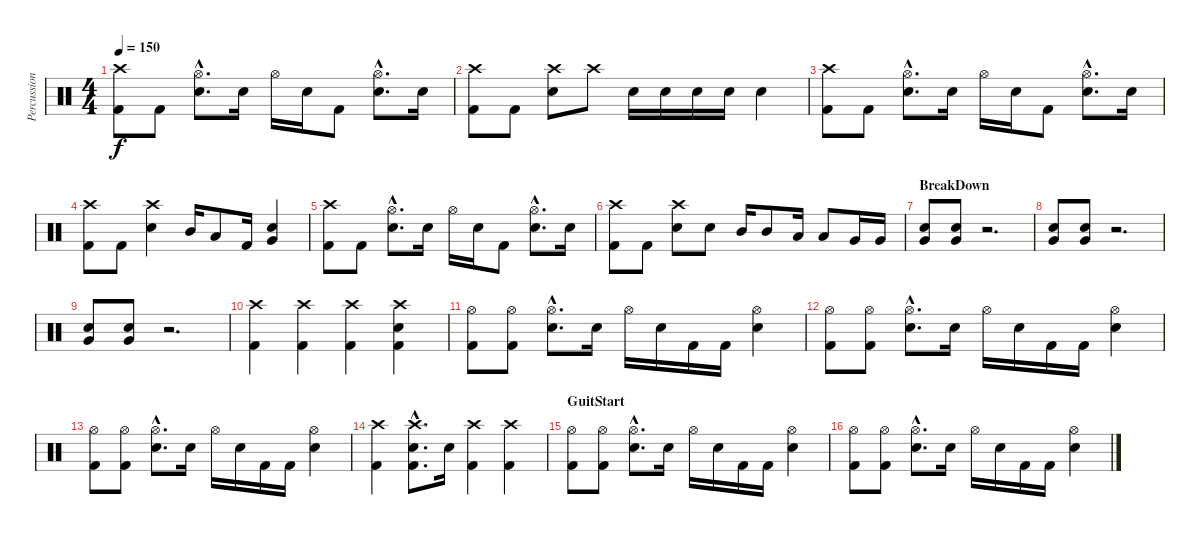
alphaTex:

\track ("Percussion" "Percussion") {instrument percussion}
\staff {score}
\articulation defaults
\ts (4 4)
\tempo 150
\clef neutral
\ks c
("Crash high (hit)" "Kick (hit) 2").8{dy f} "Kick (hit) 2".8 ("Hi-Hat (open)"{hac} "Electric Snare (hit)"{hac}).8{d} "Electric Snare (hit)".16 "Hi-Hat (open)".16 "Electric Snare (hit)".16 "Kick (hit) 2".8 ("Hi-Hat (open)"{hac} "Electric Snare (hit)"{hac}).8{d} "Electric Snare (hit)".16 |
("Crash high (hit)" "Kick (hit) 2").8 "Kick (hit) 2".8 ("Crash high (hit)" "Electric Snare (hit)").8 "Crash high (hit)".8 "Electric Snare (hit)".16 "Electric Snare (hit)".16 "Electric Snare (hit)".16 "Electric Snare (hit)".16 "Electric Snare (hit)".4 |
("Crash high (hit)" "Kick (hit) 2").8 "Kick (hit) 2".8 ("Hi-Hat (open)"{hac} "Electric Snare (hit)"{hac}).8{d} "Electric Snare (hit)".16 "Hi-Hat (open)".16 "Electric Snare (hit)".16 "Kick (hit) 2".8 ("Hi-Hat (open)"{hac} "Electric Snare (hit)"{hac}).8{d} "Electric Snare (hit)".16 |
("Crash high (hit)" "Kick (hit) 2").8 "Kick (hit) 2".8 ("Crash high (hit)" "Electric Snare (hit)").4 "Mid Tom (hit)".16 "Low Tom (hit)".8 "Kick (hit) 2".16 ("Very Low Tom (hit)" "Electric Snare (hit)").4 |
("Crash high (hit)" "Kick (hit) 2").8 "Kick (hit) 2".8 ("Hi-Hat (open)"{hac} "Electric Snare (hit)"{hac}).8{d} "Electric Snare (hit)".16 "Hi-Hat (open)".16 "Electric Snare (hit)".16 "Kick (hit) 2".8 ("Hi-Hat (open)"{hac} "Electric Snare (hit)"{hac}).8{d} "Electric Snare (hit)".16 |
("Crash high (hit)" "Kick (hit) 2").8 "Kick (hit) 2".8 ("Crash high (hit)" "Electric Snare (hit)").8 "Electric Snare (hit)".8 "Mid Tom (hit)".16 "Mid Tom (hit)".8 "Low Tom (hit)".16 "Low Tom (hit)".8 "Very Low Tom (hit)".16 "Very Low Tom (hit)".16 |
\section ("" "BreakDown")
("Very Low Tom (hit)" "Electric Snare (hit)").8 ("Very Low Tom (hit)" "Electric Snare (hit)").8 r.2{d} |
("Very Low Tom (hit)" "Electric Snare (hit)").8 ("Very Low Tom (hit)" "Electric Snare (hit)").8 r.2{d} |
("Very Low Tom (hit)" "Electric Snare (hit)").8 ("Very Low Tom (hit)" "Electric Snare (hit)").8 r.2{d} |
("Crash high (hit)" "Kick (hit) 2").4 ("Crash high (hit)" "Kick (hit) 2").4 ("Crash high (hit)" "Kick (hit) 2").4 ("Crash high (hit)" "Electric Snare (hit)" "Kick (hit) 2").4 |
("Hi-Hat (open)" "Kick (hit) 2").8 ("Hi-Hat (open)" "Kick (hit) 2").8 ("Hi-Hat (open)"{hac} "Electric Snare (hit)"{hac}).8{d} "Electric Snare (hit)".16 "Hi-Hat (open)".16 "Electric Snare (hit)".16 "Kick (hit) 2".16 "Kick (hit) 2".16 ("Hi-Hat (open)" "Electric Snare (hit)").4 |
("Hi-Hat (open)" "Kick (hit) 2").8 ("Hi-Hat (open)" "Kick (hit) 2").8 ("Hi-Hat (open)"{hac} "Electric Snare (hit)"{hac}).8{d} "Electric Snare (hit)".16 "Hi-Hat (open)".16 "Electric Snare (hit)".16 "Kick (hit) 2".16 "Kick (hit) 2".16 ("Hi-Hat (open)" "Electric Snare (hit)").4 |
("Hi-Hat (open)" "Kick (hit) 2").8 ("Hi-Hat (open)" "Kick (hit) 2").8 ("Hi-Hat (open)"{hac} "Electric Snare (hit)"{hac}).8{d} "Electric Snare (hit)".16 "Hi-Hat (open)".16 "Electric Snare (hit)".16 "Kick (hit) 2".16 "Kick (hit) 2".16 ("Hi-Hat (open)" "Electric Snare (hit)").4 |
("Crash high (hit)" "Kick (hit) 2").4 ("Crash high (hit)"{hac} "Electric Snare (hit)"{hac} "Kick (hit) 2"{hac}).8{d} "Electric Snare (hit)".16 ("Crash high (hit)" "Kick (hit) 2").4 ("Crash high (hit)" "Kick (hit) 2").4 |
\section ("" "GuitStart")
("Hi-Hat (open)" "Kick (hit) 2").8 ("Hi-Hat (open)" "Kick (hit) 2").8 ("Hi-Hat (open)"{hac} "Electric Snare (hit)"{hac}).8{d} "Electric Snare (hit)".16 "Hi-Hat (open)".16 "Electric Snare (hit)".16 "Kick (hit) 2".16 "Kick (hit) 2".16 ("Hi-Hat (open)" "Electric Snare (hit)").4 |
("Hi-Hat (open)" "Kick (hit) 2").8 ("Hi-Hat (open)" "Kick (hit) 2").8 ("Hi-Hat (open)"{hac} "Electric Snare (hit)"{hac}).8{d} "Electric Snare (hit)".16 "Hi-Hat (open)".16 "Electric Snare (hit)".16 "Kick (hit) 2".16 "Kick (hit) 2".16 ("Hi-Hat (open)" "Electric Snare (hit)").4
